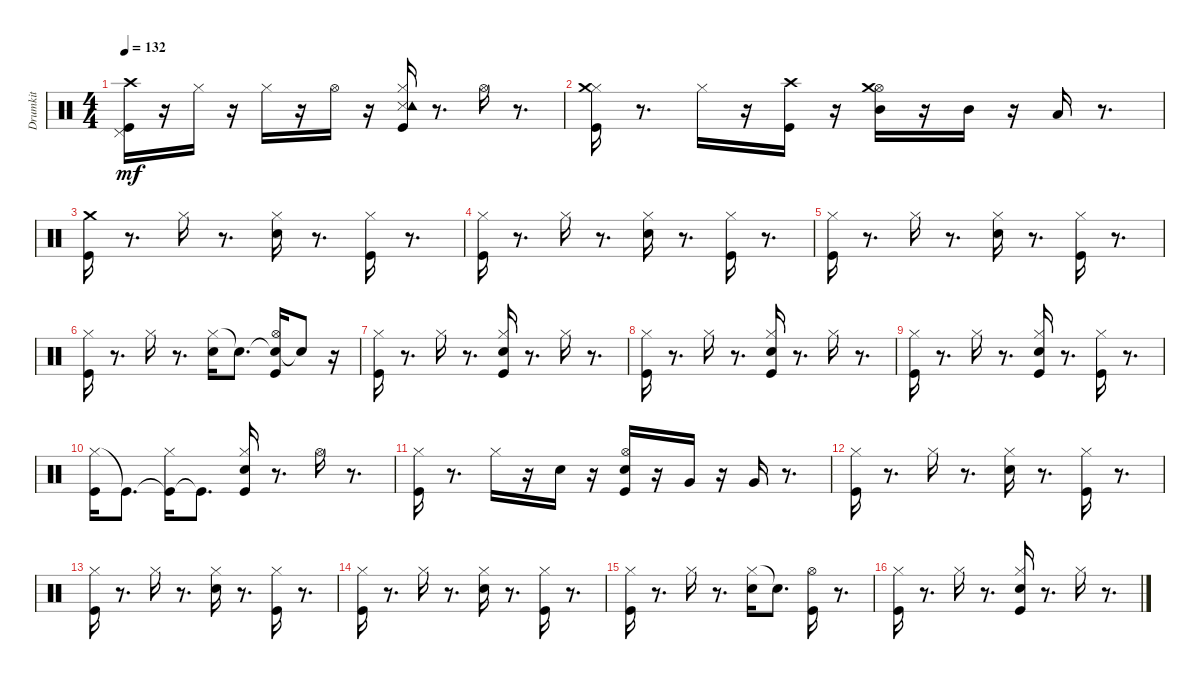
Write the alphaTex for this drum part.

\track ("Drumkit" "Drumkit") {instrument percussion}
\staff {score}
\articulation defaults
\ts (4 4)
\tempo 132
\clef neutral
\ks aminor
("Kick (hit)" "Pedal Hi-Hat (hit)" "Crash high (hit)").16{dy mf} r.16 "Hi-Hat (closed)".16 r.16 "Hi-Hat (closed)".16 r.16 "Hi-Hat (open)".16 r.16 ("Kick (hit)" "Snare (side stick) 3" "Hi-Hat (closed)" "Tambourine (hit)").16 r.8{d} "Hi-Hat (open)".16 r.8{d} |
("Kick (hit)" "Hi-Hat (closed)" "Crash medium (hit)").16 r.8{d} "Hi-Hat (closed)".16 r.16 ("Kick (hit)" "Crash high (hit)").16 r.16 ("Hi-Hat (open)" "Mid Tom (hit)" "Crash medium (hit)").16 r.16 "Mid Tom (hit)".16 r.16 "Low Tom (hit)".16 r.8{d} |
("Kick (hit)" "Crash medium (hit)").16 r.8{d} "Hi-Hat (closed)".16 r.8{d} ("Snare (hit) 2" "Hi-Hat (closed)").16 r.8{d} ("Kick (hit)" "Hi-Hat (closed)").16 r.8{d} |
("Kick (hit)" "Hi-Hat (closed)").16 r.8{d} "Hi-Hat (closed)".16 r.8{d} ("Snare (hit) 2" "Hi-Hat (closed)").16 r.8{d} ("Kick (hit)" "Hi-Hat (closed)").16 r.8{d} |
("Kick (hit)" "Hi-Hat (closed)").16 r.8{d} "Hi-Hat (closed)".16 r.8{d} ("Snare (hit) 2" "Hi-Hat (closed)").16 r.8{d} ("Kick (hit)" "Hi-Hat (closed)").16 r.8{d} |
("Kick (hit)" "Hi-Hat (closed)").16 r.8{d} "Hi-Hat (closed)".16 r.8{d} ("Hi-Hat (closed)" "Snare (hit) 2").16 "Snare (hit) 2"{t}.8{d} ("Snare (hit) 2"{t} "Kick (hit)" "Hi-Hat (open)").16 "Snare (hit) 2"{t}.8 r.16 |
("Kick (hit)" "Hi-Hat (closed)").16 r.8{d} "Hi-Hat (closed)".16 r.8{d} ("Kick (hit)" "Snare (hit) 2" "Hi-Hat (closed)").16 r.8{d} "Hi-Hat (closed)".16 r.8{d} |
("Kick (hit)" "Hi-Hat (closed)").16 r.8{d} "Hi-Hat (closed)".16 r.8{d} ("Kick (hit)" "Snare (hit) 2" "Hi-Hat (closed)").16 r.8{d} "Hi-Hat (closed)".16 r.8{d} |
("Kick (hit)" "Hi-Hat (closed)").16 r.8{d} "Hi-Hat (closed)".16 r.8{d} ("Kick (hit)" "Snare (hit) 2" "Hi-Hat (closed)").16 r.8{d} ("Kick (hit)" "Hi-Hat (closed)").16 r.8{d} |
("Hi-Hat (closed)" "Kick (hit)").16 "Kick (hit)"{t}.8{d} ("Kick (hit)"{t} "Hi-Hat (closed)").16 "Kick (hit)"{t}.8{d} ("Kick (hit)" "Snare (hit) 2" "Hi-Hat (closed)").16 r.8{d} "Hi-Hat (open)".16 r.8{d} |
("Kick (hit)" "Hi-Hat (closed)").16 r.8{d} "Hi-Hat (closed)".16 r.16 "Snare (hit) 2".16 r.16 ("Kick (hit)" "Snare (hit) 2" "Hi-Hat (open)").16 r.16 "Very Low Tom (hit)".16 r.16 "Very Low Tom (hit)".16 r.8{d} |
("Kick (hit)" "Hi-Hat (closed)").16 r.8{d} "Hi-Hat (closed)".16 r.8{d} ("Snare (hit) 2" "Hi-Hat (closed)").16 r.8{d} ("Kick (hit)" "Hi-Hat (closed)").16 r.8{d} |
("Kick (hit)" "Hi-Hat (closed)").16 r.8{d} "Hi-Hat (closed)".16 r.8{d} ("Snare (hit) 2" "Hi-Hat (closed)").16 r.8{d} ("Kick (hit)" "Hi-Hat (closed)").16 r.8{d} |
("Kick (hit)" "Hi-Hat (closed)").16 r.8{d} "Hi-Hat (closed)".16 r.8{d} ("Snare (hit) 2" "Hi-Hat (closed)").16 r.8{d} ("Kick (hit)" "Hi-Hat (closed)").16 r.8{d} |
("Kick (hit)" "Hi-Hat (closed)").16 r.8{d} "Hi-Hat (closed)".16 r.8{d} ("Hi-Hat (closed)" "Snare (hit) 2").16 "Snare (hit) 2"{t}.8{d} ("Kick (hit)" "Hi-Hat (open)").16 r.8{d} |
("Kick (hit)" "Hi-Hat (closed)").16 r.8{d} "Hi-Hat (closed)".16 r.8{d} ("Kick (hit)" "Snare (hit) 2" "Hi-Hat (closed)").16 r.8{d} "Hi-Hat (closed)".16 r.8{d}
